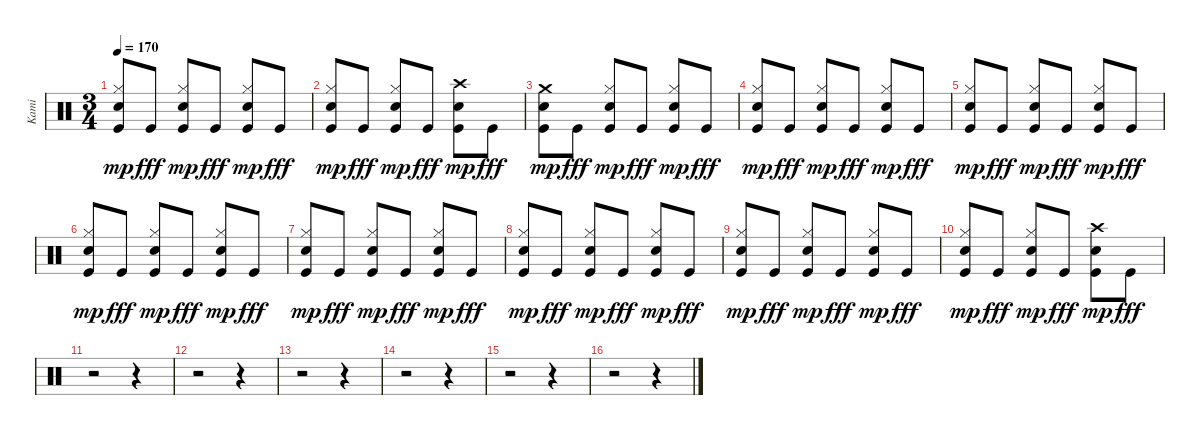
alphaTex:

\track ("Kami" "Kami") {instrument percussion}
\staff {score}
\articulation defaults
\ts (3 4)
\tempo 170
\clef neutral
\ks c
("Kick (hit)" "Hi-Hat (closed)" "Snare (hit) 2").8{dy mp} "Kick (hit)".8{dy fff} ("Kick (hit)" "Hi-Hat (closed)" "Snare (hit) 2").8{dy mp} "Kick (hit)".8{dy fff} ("Kick (hit)" "Hi-Hat (closed)" "Snare (hit) 2").8{dy mp} "Kick (hit)".8{dy fff} |
("Kick (hit)" "Hi-Hat (closed)" "Snare (hit) 2").8{dy mp} "Kick (hit)".8{dy fff} ("Kick (hit)" "Hi-Hat (closed)" "Snare (hit) 2").8{dy mp} "Kick (hit)".8{dy fff} ("Kick (hit)" "Crash high (hit)" "Snare (hit) 2").8{dy mp} "Kick (hit)".8{dy fff} |
("Kick (hit)" "Crash medium (hit)" "Snare (hit) 2").8{dy mp volume 12} "Kick (hit)".8{dy fff} ("Kick (hit)" "Snare (hit) 2" "Hi-Hat (closed)").8{dy mp} "Kick (hit)".8{dy fff} ("Kick (hit)" "Hi-Hat (closed)" "Snare (hit) 2").8{dy mp} "Kick (hit)".8{dy fff} |
("Kick (hit)" "Hi-Hat (closed)" "Snare (hit) 2").8{dy mp} "Kick (hit)".8{dy fff} ("Kick (hit)" "Hi-Hat (closed)" "Snare (hit) 2").8{dy mp} "Kick (hit)".8{dy fff} ("Kick (hit)" "Hi-Hat (closed)" "Snare (hit) 2").8{dy mp} "Kick (hit)".8{dy fff} |
("Kick (hit)" "Hi-Hat (closed)" "Snare (hit) 2").8{dy mp} "Kick (hit)".8{dy fff} ("Kick (hit)" "Hi-Hat (closed)" "Snare (hit) 2").8{dy mp} "Kick (hit)".8{dy fff} ("Kick (hit)" "Hi-Hat (closed)" "Snare (hit) 2").8{dy mp} "Kick (hit)".8{dy fff} |
("Kick (hit)" "Hi-Hat (closed)" "Snare (hit) 2").8{dy mp} "Kick (hit)".8{dy fff} ("Kick (hit)" "Hi-Hat (closed)" "Snare (hit) 2").8{dy mp} "Kick (hit)".8{dy fff} ("Kick (hit)" "Hi-Hat (closed)" "Snare (hit) 2").8{dy mp} "Kick (hit)".8{dy fff} |
("Kick (hit)" "Hi-Hat (closed)" "Snare (hit) 2").8{dy mp} "Kick (hit)".8{dy fff} ("Kick (hit)" "Hi-Hat (closed)" "Snare (hit) 2").8{dy mp} "Kick (hit)".8{dy fff} ("Kick (hit)" "Hi-Hat (closed)" "Snare (hit) 2").8{dy mp} "Kick (hit)".8{dy fff} |
("Kick (hit)" "Hi-Hat (closed)" "Snare (hit) 2").8{dy mp} "Kick (hit)".8{dy fff} ("Kick (hit)" "Hi-Hat (closed)" "Snare (hit) 2").8{dy mp} "Kick (hit)".8{dy fff} ("Kick (hit)" "Hi-Hat (closed)" "Snare (hit) 2").8{dy mp} "Kick (hit)".8{dy fff} |
("Kick (hit)" "Hi-Hat (closed)" "Snare (hit) 2").8{dy mp} "Kick (hit)".8{dy fff} ("Kick (hit)" "Hi-Hat (closed)" "Snare (hit) 2").8{dy mp} "Kick (hit)".8{dy fff} ("Kick (hit)" "Hi-Hat (closed)" "Snare (hit) 2").8{dy mp} "Kick (hit)".8{dy fff} |
("Kick (hit)" "Hi-Hat (closed)" "Snare (hit) 2").8{dy mp} "Kick (hit)".8{dy fff} ("Kick (hit)" "Hi-Hat (closed)" "Snare (hit) 2").8{dy mp} "Kick (hit)".8{dy fff} ("Kick (hit)" "Crash high (hit)" "Snare (hit) 2").8{dy mp} "Kick (hit)".8{dy fff} |
r.2 r.4 |
r.2 r.4 |
r.2 r.4 |
r.2 r.4 |
r.2 r.4 |
r.2 r.4
